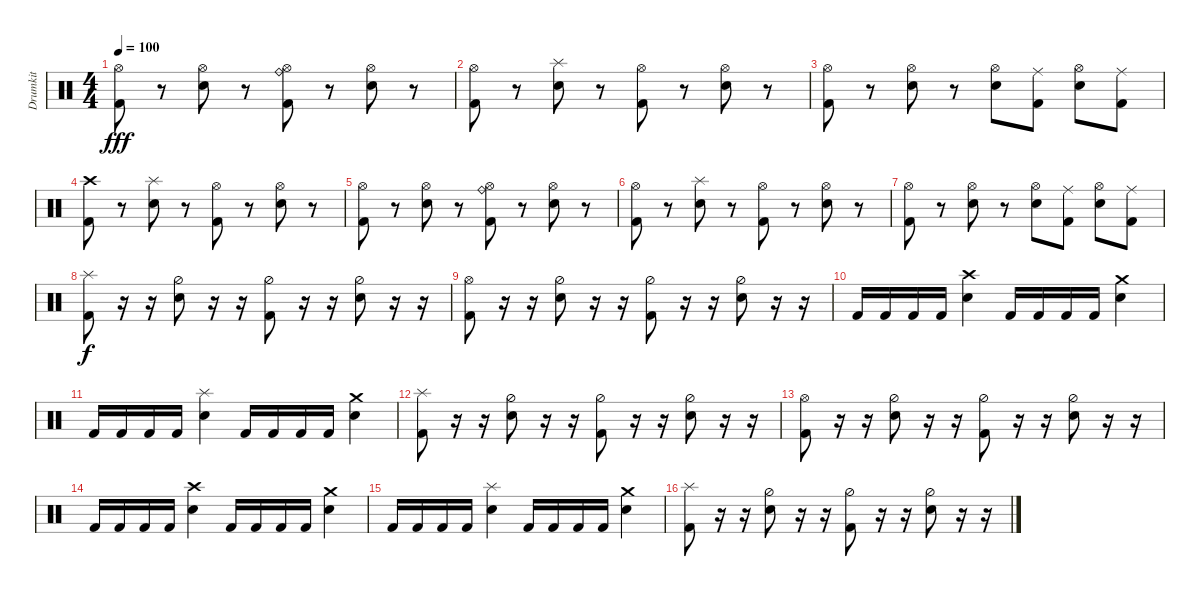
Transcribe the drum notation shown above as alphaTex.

\track ("Drumkit" "Drumkit") {instrument percussion}
\staff {score}
\articulation defaults
\ts (4 4)
\tempo 100
\clef neutral
\ks c
("Kick (hit) 2" "Hi-Hat (open)").8{dy fff} r.8 ("Snare (hit) 2" "Hi-Hat (open)").8 r.8 ("Kick (hit) 2" "Hi-Hat (open)" "Ride (bell)").8 r.8 ("Hi-Hat (open)" "Snare (hit) 2").8 r.8 |
("Kick (hit) 2" "Hi-Hat (open)").8 r.8 ("Snare (hit) 2" "Splash (hit)").8 r.8 ("Kick (hit) 2" "Hi-Hat (open)").8 r.8 ("Snare (hit) 2" "Hi-Hat (open)").8 r.8 |
("Kick (hit) 2" "Hi-Hat (open)").8 r.8 ("Snare (hit) 2" "Hi-Hat (open)").8 r.8 ("Snare (hit) 2" "Hi-Hat (open)").8 ("Kick (hit) 2" "Ride (middle)").8 ("Snare (hit) 2" "Hi-Hat (open)").8 ("Kick (hit) 2" "Ride (middle)").8 |
("Kick (hit) 2" "Crash high (hit)").8 r.8 ("Snare (hit) 2" "Splash (hit)").8 r.8 ("Kick (hit) 2" "Hi-Hat (open)").8 r.8 ("Snare (hit) 2" "Hi-Hat (open)").8 r.8 |
("Kick (hit) 2" "Hi-Hat (open)").8 r.8 ("Snare (hit) 2" "Hi-Hat (open)").8 r.8 ("Kick (hit) 2" "Hi-Hat (open)" "Ride (bell)").8 r.8 ("Hi-Hat (open)" "Snare (hit) 2").8 r.8 |
("Kick (hit) 2" "Hi-Hat (open)").8 r.8 ("Snare (hit) 2" "Splash (hit)").8 r.8 ("Kick (hit) 2" "Hi-Hat (open)").8 r.8 ("Snare (hit) 2" "Hi-Hat (open)").8 r.8 |
("Kick (hit) 2" "Hi-Hat (open)").8 r.8 ("Snare (hit) 2" "Hi-Hat (open)").8 r.8 ("Snare (hit) 2" "Hi-Hat (open)").8 ("Kick (hit) 2" "Ride (middle)").8 ("Snare (hit) 2" "Hi-Hat (open)").8 ("Kick (hit) 2" "Ride (middle)").8 |
("Kick (hit) 2" "Splash (hit)").8{dy f} r.16 r.16 ("Hi-Hat (half)" "Snare (hit) 2").8 r.16 r.16 ("Kick (hit) 2" "Hi-Hat (half)").8 r.16 r.16 ("Snare (hit) 2" "Hi-Hat (half)").8 r.16 r.16 |
("Kick (hit) 2" "Hi-Hat (open)").8 r.16 r.16 ("Hi-Hat (half)" "Snare (hit) 2").8 r.16 r.16 ("Kick (hit) 2" "Hi-Hat (half)").8 r.16 r.16 ("Snare (hit) 2" "Hi-Hat (half)").8 r.16 r.16 |
"Kick (hit) 2".16 "Kick (hit) 2".16 "Kick (hit) 2".16 "Kick (hit) 2".16 ("Snare (hit) 2" "Crash high (hit)").4 "Kick (hit) 2".16 "Kick (hit) 2".16 "Kick (hit) 2".16 "Kick (hit) 2".16 ("Snare (hit) 2" "Crash medium (hit)").4 |
"Kick (hit) 2".16 "Kick (hit) 2".16 "Kick (hit) 2".16 "Kick (hit) 2".16 ("Snare (hit) 2" "Splash (hit)").4 "Kick (hit) 2".16 "Kick (hit) 2".16 "Kick (hit) 2".16 "Kick (hit) 2".16 ("Snare (hit) 2" "Crash medium (hit)").4 |
("Kick (hit) 2" "Splash (hit)").8 r.16 r.16 ("Hi-Hat (half)" "Snare (hit) 2").8 r.16 r.16 ("Kick (hit) 2" "Hi-Hat (half)").8 r.16 r.16 ("Snare (hit) 2" "Hi-Hat (half)").8 r.16 r.16 |
("Kick (hit) 2" "Hi-Hat (open)").8 r.16 r.16 ("Hi-Hat (half)" "Snare (hit) 2").8 r.16 r.16 ("Kick (hit) 2" "Hi-Hat (half)").8 r.16 r.16 ("Snare (hit) 2" "Hi-Hat (half)").8 r.16 r.16 |
"Kick (hit) 2".16 "Kick (hit) 2".16 "Kick (hit) 2".16 "Kick (hit) 2".16 ("Snare (hit) 2" "Crash high (hit)").4 "Kick (hit) 2".16 "Kick (hit) 2".16 "Kick (hit) 2".16 "Kick (hit) 2".16 ("Snare (hit) 2" "Crash medium (hit)").4 |
"Kick (hit) 2".16 "Kick (hit) 2".16 "Kick (hit) 2".16 "Kick (hit) 2".16 ("Snare (hit) 2" "Splash (hit)").4 "Kick (hit) 2".16 "Kick (hit) 2".16 "Kick (hit) 2".16 "Kick (hit) 2".16 ("Snare (hit) 2" "Crash medium (hit)").4 |
("Kick (hit) 2" "Splash (hit)").8 r.16 r.16 ("Hi-Hat (half)" "Snare (hit) 2").8 r.16 r.16 ("Kick (hit) 2" "Hi-Hat (half)").8 r.16 r.16 ("Snare (hit) 2" "Hi-Hat (half)").8 r.16 r.16
